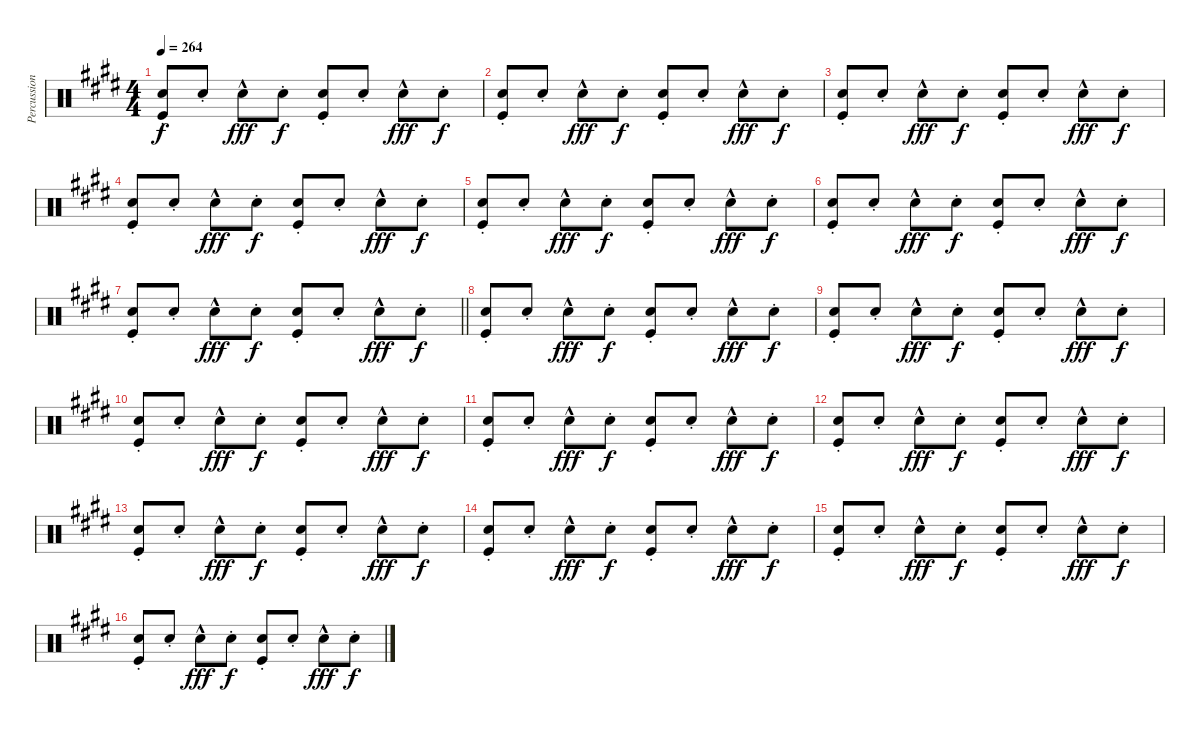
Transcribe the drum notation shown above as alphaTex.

\track ("Percussion" "Percussion") {instrument percussion}
\staff {score}
\articulation defaults
\ts (4 4)
\tempo 264
\clef neutral
\ks e
("Snare (hit) 2"{st} "Kick (hit)").8{dy f} "Snare (hit) 2"{st}.8 "Snare (hit) 2"{hac}.8{dy fff} "Snare (hit) 2"{st}.8{dy f} ("Snare (hit) 2"{st} "Kick (hit)").8 "Snare (hit) 2"{st}.8 "Snare (hit) 2"{hac}.8{dy fff} "Snare (hit) 2"{st}.8{dy f} |
("Snare (hit) 2"{st} "Kick (hit)").8 "Snare (hit) 2"{st}.8 "Snare (hit) 2"{hac}.8{dy fff} "Snare (hit) 2"{st}.8{dy f} ("Snare (hit) 2"{st} "Kick (hit)").8 "Snare (hit) 2"{st}.8 "Snare (hit) 2"{hac}.8{dy fff} "Snare (hit) 2"{st}.8{dy f} |
("Snare (hit) 2"{st} "Kick (hit)").8 "Snare (hit) 2"{st}.8 "Snare (hit) 2"{hac}.8{dy fff} "Snare (hit) 2"{st}.8{dy f} ("Snare (hit) 2"{st} "Kick (hit)").8 "Snare (hit) 2"{st}.8 "Snare (hit) 2"{hac}.8{dy fff} "Snare (hit) 2"{st}.8{dy f} |
("Snare (hit) 2"{st} "Kick (hit)").8 "Snare (hit) 2"{st}.8 "Snare (hit) 2"{hac}.8{dy fff} "Snare (hit) 2"{st}.8{dy f} ("Snare (hit) 2"{st} "Kick (hit)").8 "Snare (hit) 2"{st}.8 "Snare (hit) 2"{hac}.8{dy fff} "Snare (hit) 2"{st}.8{dy f} |
("Snare (hit) 2"{st} "Kick (hit)").8 "Snare (hit) 2"{st}.8 "Snare (hit) 2"{hac}.8{dy fff} "Snare (hit) 2"{st}.8{dy f} ("Snare (hit) 2"{st} "Kick (hit)").8 "Snare (hit) 2"{st}.8 "Snare (hit) 2"{hac}.8{dy fff} "Snare (hit) 2"{st}.8{dy f} |
("Snare (hit) 2"{st} "Kick (hit)").8 "Snare (hit) 2"{st}.8 "Snare (hit) 2"{hac}.8{dy fff} "Snare (hit) 2"{st}.8{dy f} ("Snare (hit) 2"{st} "Kick (hit)").8 "Snare (hit) 2"{st}.8 "Snare (hit) 2"{hac}.8{dy fff} "Snare (hit) 2"{st}.8{dy f} |
\barLineRight lightlight
("Snare (hit) 2"{st} "Kick (hit)").8 "Snare (hit) 2"{st}.8 "Snare (hit) 2"{hac}.8{dy fff} "Snare (hit) 2"{st}.8{dy f} ("Snare (hit) 2"{st} "Kick (hit)").8 "Snare (hit) 2"{st}.8 "Snare (hit) 2"{hac}.8{dy fff} "Snare (hit) 2"{st}.8{dy f} |
("Snare (hit) 2"{st} "Kick (hit)").8 "Snare (hit) 2"{st}.8 "Snare (hit) 2"{hac}.8{dy fff} "Snare (hit) 2"{st}.8{dy f} ("Snare (hit) 2"{st} "Kick (hit)").8 "Snare (hit) 2"{st}.8 "Snare (hit) 2"{hac}.8{dy fff} "Snare (hit) 2"{st}.8{dy f} |
("Snare (hit) 2"{st} "Kick (hit)").8 "Snare (hit) 2"{st}.8 "Snare (hit) 2"{hac}.8{dy fff} "Snare (hit) 2"{st}.8{dy f} ("Snare (hit) 2"{st} "Kick (hit)").8 "Snare (hit) 2"{st}.8 "Snare (hit) 2"{hac}.8{dy fff} "Snare (hit) 2"{st}.8{dy f} |
("Snare (hit) 2"{st} "Kick (hit)").8 "Snare (hit) 2"{st}.8 "Snare (hit) 2"{hac}.8{dy fff} "Snare (hit) 2"{st}.8{dy f} ("Snare (hit) 2"{st} "Kick (hit)").8 "Snare (hit) 2"{st}.8 "Snare (hit) 2"{hac}.8{dy fff} "Snare (hit) 2"{st}.8{dy f} |
("Snare (hit) 2"{st} "Kick (hit)").8 "Snare (hit) 2"{st}.8 "Snare (hit) 2"{hac}.8{dy fff} "Snare (hit) 2"{st}.8{dy f} ("Snare (hit) 2"{st} "Kick (hit)").8 "Snare (hit) 2"{st}.8 "Snare (hit) 2"{hac}.8{dy fff} "Snare (hit) 2"{st}.8{dy f} |
("Snare (hit) 2"{st} "Kick (hit)").8 "Snare (hit) 2"{st}.8 "Snare (hit) 2"{hac}.8{dy fff} "Snare (hit) 2"{st}.8{dy f} ("Snare (hit) 2"{st} "Kick (hit)").8 "Snare (hit) 2"{st}.8 "Snare (hit) 2"{hac}.8{dy fff} "Snare (hit) 2"{st}.8{dy f} |
("Snare (hit) 2"{st} "Kick (hit)").8 "Snare (hit) 2"{st}.8 "Snare (hit) 2"{hac}.8{dy fff} "Snare (hit) 2"{st}.8{dy f} ("Snare (hit) 2"{st} "Kick (hit)").8 "Snare (hit) 2"{st}.8 "Snare (hit) 2"{hac}.8{dy fff} "Snare (hit) 2"{st}.8{dy f} |
("Snare (hit) 2"{st} "Kick (hit)").8 "Snare (hit) 2"{st}.8 "Snare (hit) 2"{hac}.8{dy fff} "Snare (hit) 2"{st}.8{dy f} ("Snare (hit) 2"{st} "Kick (hit)").8 "Snare (hit) 2"{st}.8 "Snare (hit) 2"{hac}.8{dy fff} "Snare (hit) 2"{st}.8{dy f} |
("Snare (hit) 2"{st} "Kick (hit)").8 "Snare (hit) 2"{st}.8 "Snare (hit) 2"{hac}.8{dy fff} "Snare (hit) 2"{st}.8{dy f} ("Snare (hit) 2"{st} "Kick (hit)").8 "Snare (hit) 2"{st}.8 "Snare (hit) 2"{hac}.8{dy fff} "Snare (hit) 2"{st}.8{dy f} |
("Snare (hit) 2"{st} "Kick (hit)").8 "Snare (hit) 2"{st}.8 "Snare (hit) 2"{hac}.8{dy fff} "Snare (hit) 2"{st}.8{dy f} ("Snare (hit) 2"{st} "Kick (hit)").8 "Snare (hit) 2"{st}.8 "Snare (hit) 2"{hac}.8{dy fff} "Snare (hit) 2"{st}.8{dy f}
